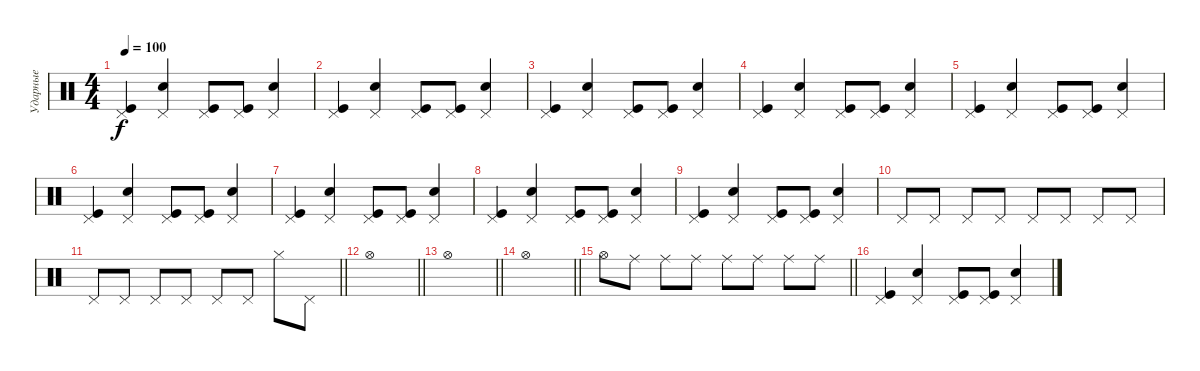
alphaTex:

\track ("Ударные" "Ударные") {instrument percussion}
\staff {score}
\articulation defaults
\ts (4 4)
\tempo 100
\clef neutral
\ks c
("Pedal Hi-Hat (hit)" "Kick (hit)").4{dy f} ("Pedal Hi-Hat (hit)" "Snare (hit) 2").4 ("Pedal Hi-Hat (hit)" "Kick (hit)").8 ("Pedal Hi-Hat (hit)" "Kick (hit)").8 ("Pedal Hi-Hat (hit)" "Snare (hit) 2").4 |
("Pedal Hi-Hat (hit)" "Kick (hit)").4 ("Pedal Hi-Hat (hit)" "Snare (hit) 2").4 ("Pedal Hi-Hat (hit)" "Kick (hit)").8 ("Pedal Hi-Hat (hit)" "Kick (hit)").8 ("Pedal Hi-Hat (hit)" "Snare (hit) 2").4 |
("Pedal Hi-Hat (hit)" "Kick (hit)").4 ("Pedal Hi-Hat (hit)" "Snare (hit) 2").4 ("Pedal Hi-Hat (hit)" "Kick (hit)").8 ("Pedal Hi-Hat (hit)" "Kick (hit)").8 ("Pedal Hi-Hat (hit)" "Snare (hit) 2").4 |
("Pedal Hi-Hat (hit)" "Kick (hit)").4 ("Pedal Hi-Hat (hit)" "Snare (hit) 2").4 ("Pedal Hi-Hat (hit)" "Kick (hit)").8 ("Pedal Hi-Hat (hit)" "Kick (hit)").8 ("Pedal Hi-Hat (hit)" "Snare (hit) 2").4 |
("Pedal Hi-Hat (hit)" "Kick (hit)").4 ("Pedal Hi-Hat (hit)" "Snare (hit) 2").4 ("Pedal Hi-Hat (hit)" "Kick (hit)").8 ("Pedal Hi-Hat (hit)" "Kick (hit)").8 ("Pedal Hi-Hat (hit)" "Snare (hit) 2").4 |
("Pedal Hi-Hat (hit)" "Kick (hit)").4 ("Pedal Hi-Hat (hit)" "Snare (hit) 2").4 ("Pedal Hi-Hat (hit)" "Kick (hit)").8 ("Pedal Hi-Hat (hit)" "Kick (hit)").8 ("Pedal Hi-Hat (hit)" "Snare (hit) 2").4 |
("Pedal Hi-Hat (hit)" "Kick (hit)").4 ("Pedal Hi-Hat (hit)" "Snare (hit) 2").4 ("Pedal Hi-Hat (hit)" "Kick (hit)").8 ("Pedal Hi-Hat (hit)" "Kick (hit)").8 ("Pedal Hi-Hat (hit)" "Snare (hit) 2").4 |
("Pedal Hi-Hat (hit)" "Kick (hit)").4 ("Pedal Hi-Hat (hit)" "Snare (hit) 2").4 ("Pedal Hi-Hat (hit)" "Kick (hit)").8 ("Pedal Hi-Hat (hit)" "Kick (hit)").8 ("Pedal Hi-Hat (hit)" "Snare (hit) 2").4 |
("Pedal Hi-Hat (hit)" "Kick (hit)").4 ("Pedal Hi-Hat (hit)" "Snare (hit) 2").4 ("Pedal Hi-Hat (hit)" "Kick (hit)").8 ("Pedal Hi-Hat (hit)" "Kick (hit)").8 ("Pedal Hi-Hat (hit)" "Snare (hit) 2").4 |
"Pedal Hi-Hat (hit)".8 "Pedal Hi-Hat (hit)".8 "Pedal Hi-Hat (hit)".8 "Pedal Hi-Hat (hit)".8 "Pedal Hi-Hat (hit)".8 "Pedal Hi-Hat (hit)".8 "Pedal Hi-Hat (hit)".8 "Pedal Hi-Hat (hit)".8 |
\barLineRight lightlight "Pedal Hi-Hat (hit)".8 "Pedal Hi-Hat (hit)".8 "Pedal Hi-Hat (hit)".8 "Pedal Hi-Hat (hit)".8 "Pedal Hi-Hat (hit)".8 "Pedal Hi-Hat (hit)".8 "Hi-Hat (closed)".8 "Pedal Hi-Hat (hit)".8
|
\barLineRight lightlight "Hi-Hat (open)".1
|
\barLineRight lightlight "Hi-Hat (open)".1
|
\barLineRight lightlight "Hi-Hat (open)".1
|
\barLineRight lightlight "Hi-Hat (open)".8 "Ride (middle)".8 "Ride (middle)".8 "Ride (middle)".8 "Ride (middle)".8 "Ride (middle)".8 "Ride (middle)".8 "Ride (middle)".8
|
("Pedal Hi-Hat (hit)" "Kick (hit)").4 ("Pedal Hi-Hat (hit)" "Snare (hit) 2").4 ("Pedal Hi-Hat (hit)" "Kick (hit)").8 ("Pedal Hi-Hat (hit)" "Kick (hit)").8 ("Pedal Hi-Hat (hit)" "Snare (hit) 2").4
